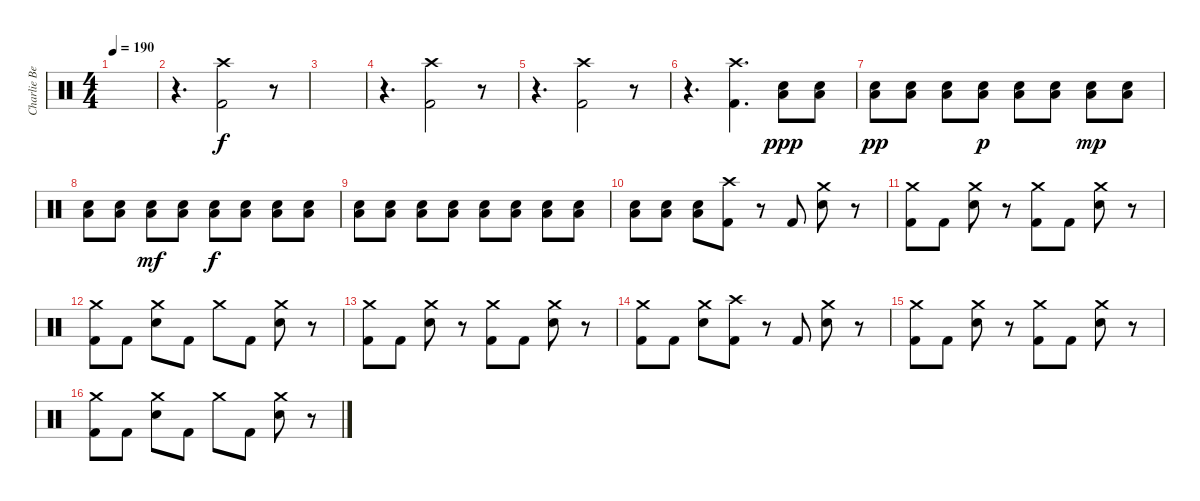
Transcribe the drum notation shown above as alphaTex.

\track ("Charlie Benante" "Charlie Be") {instrument percussion}
\staff {score}
\articulation defaults
\ts (4 4)
\tempo 190
\clef neutral
\ks c
|
r.4{d} ("Kick (hit) 2" "Crash high (hit)").2 r.8 |
|
r.4{d} ("Kick (hit) 2" "Crash high (hit)").2 r.8 |
r.4{d} ("Kick (hit) 2" "Crash high (hit)").2 r.8 |
r.4{d} ("Kick (hit) 2" "Crash high (hit)").4{d} ("Snare (hit) 2" "Low Floor Tom (hit)").8{dy ppp} ("Snare (hit) 2" "Low Floor Tom (hit)").8 |
("Snare (hit) 2" "Low Floor Tom (hit)").8{dy pp} ("Snare (hit) 2" "Low Floor Tom (hit)").8 ("Snare (hit) 2" "Low Floor Tom (hit)").8 ("Snare (hit) 2" "Low Floor Tom (hit)").8{dy p} ("Snare (hit) 2" "Low Floor Tom (hit)").8 ("Snare (hit) 2" "Low Floor Tom (hit)").8 ("Snare (hit) 2" "Low Floor Tom (hit)").8{dy mp} ("Snare (hit) 2" "Low Floor Tom (hit)").8 |
("Snare (hit) 2" "Low Floor Tom (hit)").8 ("Snare (hit) 2" "Low Floor Tom (hit)").8 ("Snare (hit) 2" "Low Floor Tom (hit)").8{dy mf} ("Snare (hit) 2" "Low Floor Tom (hit)").8 ("Snare (hit) 2" "Low Floor Tom (hit)").8{dy f} ("Snare (hit) 2" "Low Floor Tom (hit)").8 ("Snare (hit) 2" "Low Floor Tom (hit)").8 ("Snare (hit) 2" "Low Floor Tom (hit)").8 |
("Snare (hit) 2" "Low Floor Tom (hit)").8 ("Snare (hit) 2" "Low Floor Tom (hit)").8 ("Snare (hit) 2" "Low Floor Tom (hit)").8 ("Snare (hit) 2" "Low Floor Tom (hit)").8 ("Snare (hit) 2" "Low Floor Tom (hit)").8 ("Snare (hit) 2" "Low Floor Tom (hit)").8 ("Snare (hit) 2" "Low Floor Tom (hit)").8 ("Snare (hit) 2" "Low Floor Tom (hit)").8 |
("Snare (hit) 2" "Low Floor Tom (hit)").8 ("Snare (hit) 2" "Low Floor Tom (hit)").8 ("Snare (hit) 2" "Low Floor Tom (hit)").8 ("Kick (hit) 2" "Crash high (hit)").8 r.8 "Kick (hit) 2".8 ("Snare (hit) 2" "Crash medium (hit)").8 r.8 |
("Kick (hit) 2" "Crash medium (hit)").8 "Kick (hit) 2".8 ("Snare (hit) 2" "Crash medium (hit)").8 r.8 ("Kick (hit) 2" "Crash medium (hit)").8 "Kick (hit) 2".8 ("Snare (hit) 2" "Crash medium (hit)").8 r.8 |
("Kick (hit) 2" "Crash medium (hit)").8 "Kick (hit) 2".8 ("Snare (hit) 2" "Crash medium (hit)").8 "Kick (hit) 2".8 "Crash medium (hit)".8 "Kick (hit) 2".8 ("Snare (hit) 2" "Crash medium (hit)").8 r.8 |
("Kick (hit) 2" "Crash medium (hit)").8 "Kick (hit) 2".8 ("Snare (hit) 2" "Crash medium (hit)").8 r.8 ("Kick (hit) 2" "Crash medium (hit)").8 "Kick (hit) 2".8 ("Snare (hit) 2" "Crash medium (hit)").8 r.8 |
("Kick (hit) 2" "Crash medium (hit)").8 "Kick (hit) 2".8 ("Snare (hit) 2" "Crash medium (hit)").8 ("Kick (hit) 2" "Crash high (hit)").8 r.8 "Kick (hit) 2".8 ("Snare (hit) 2" "Crash medium (hit)").8 r.8 |
("Kick (hit) 2" "Crash medium (hit)").8 "Kick (hit) 2".8 ("Snare (hit) 2" "Crash medium (hit)").8 r.8 ("Kick (hit) 2" "Crash medium (hit)").8 "Kick (hit) 2".8 ("Snare (hit) 2" "Crash medium (hit)").8 r.8 |
("Kick (hit) 2" "Crash medium (hit)").8 "Kick (hit) 2".8 ("Snare (hit) 2" "Crash medium (hit)").8 "Kick (hit) 2".8 "Crash medium (hit)".8 "Kick (hit) 2".8 ("Snare (hit) 2" "Crash medium (hit)").8 r.8
